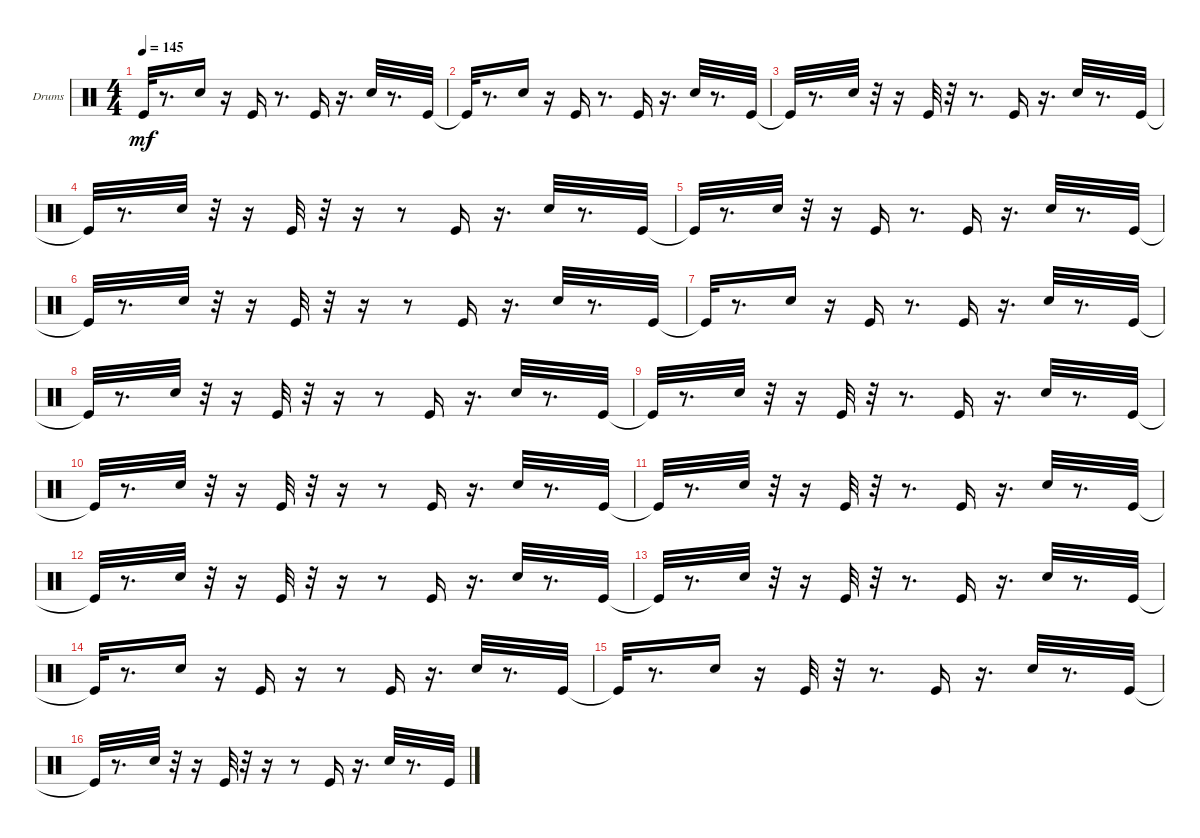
\bracketExtendMode groupsimilarinstruments
\firstSystemTrackNameOrientation horizontal
\otherSystemsTrackNameOrientation horizontal
\track ("Drums" "Drums") {instrument percussion}
\staff {score}
\articulation defaults
\ts (4 4)
\tempo 145
\clef neutral
\ks c "Kick (hit)"{t}.32{dy mf}
r.8{d} "Snare (hit) 2".16 r.16 "Kick (hit)".16 r.8{d} "Kick (hit)".16 r.16{d} "Snare (hit) 2".32 r.8{d} "Kick (hit)".32 |
"Kick (hit)"{t}.32 r.8{d} "Snare (hit) 2".16 r.16 "Kick (hit)".16 r.8{d} "Kick (hit)".16 r.16{d} "Snare (hit) 2".32 r.8{d} "Kick (hit)".32 |
"Kick (hit)"{t}.32 r.8{d} "Snare (hit) 2".32 r.32 r.16 "Kick (hit)".32 r.32 r.8{d} "Kick (hit)".16 r.16{d} "Snare (hit) 2".32 r.8{d} "Kick (hit)".32 |
"Kick (hit)"{t}.32 r.8{d} "Snare (hit) 2".32 r.32 r.16 "Kick (hit)".32 r.32 r.16 r.8 "Kick (hit)".16 r.16{d} "Snare (hit) 2".32 r.8{d} "Kick (hit)".32 |
"Kick (hit)"{t}.32 r.8{d} "Snare (hit) 2".32 r.32 r.16 "Kick (hit)".16 r.8{d} "Kick (hit)".16 r.16{d} "Snare (hit) 2".32 r.8{d} "Kick (hit)".32 |
"Kick (hit)"{t}.32 r.8{d} "Snare (hit) 2".32 r.32 r.16 "Kick (hit)".32 r.32 r.16 r.8 "Kick (hit)".16 r.16{d} "Snare (hit) 2".32 r.8{d} "Kick (hit)".32 |
"Kick (hit)"{t}.32 r.8{d} "Snare (hit) 2".16 r.16 "Kick (hit)".16 r.8{d} "Kick (hit)".16 r.16{d} "Snare (hit) 2".32 r.8{d} "Kick (hit)".32 |
"Kick (hit)"{t}.32 r.8{d} "Snare (hit) 2".32 r.32 r.16 "Kick (hit)".32 r.32 r.16 r.8 "Kick (hit)".16 r.16{d} "Snare (hit) 2".32 r.8{d} "Kick (hit)".32 |
"Kick (hit)"{t}.32 r.8{d} "Snare (hit) 2".32 r.32 r.16 "Kick (hit)".32 r.32 r.8{d} "Kick (hit)".16 r.16{d} "Snare (hit) 2".32 r.8{d} "Kick (hit)".32 |
"Kick (hit)"{t}.32 r.8{d} "Snare (hit) 2".32 r.32 r.16 "Kick (hit)".32 r.32 r.16 r.8 "Kick (hit)".16 r.16{d} "Snare (hit) 2".32 r.8{d} "Kick (hit)".32 |
"Kick (hit)"{t}.32 r.8{d} "Snare (hit) 2".32 r.32 r.16 "Kick (hit)".32 r.32 r.8{d} "Kick (hit)".16 r.16{d} "Snare (hit) 2".32 r.8{d} "Kick (hit)".32 |
"Kick (hit)"{t}.32 r.8{d} "Snare (hit) 2".32 r.32 r.16 "Kick (hit)".32 r.32 r.16 r.8 "Kick (hit)".16 r.16{d} "Snare (hit) 2".32 r.8{d} "Kick (hit)".32 |
"Kick (hit)"{t}.32 r.8{d} "Snare (hit) 2".32 r.32 r.16 "Kick (hit)".32 r.32 r.8{d} "Kick (hit)".16 r.16{d} "Snare (hit) 2".32 r.8{d} "Kick (hit)".32 |
"Kick (hit)"{t}.32 r.8{d} "Snare (hit) 2".16 r.16 "Kick (hit)".16 r.16 r.8 "Kick (hit)".16 r.16{d} "Snare (hit) 2".32 r.8{d} "Kick (hit)".32 |
"Kick (hit)"{t}.32 r.8{d} "Snare (hit) 2".16 r.16 "Kick (hit)".32 r.32 r.8{d} "Kick (hit)".16 r.16{d} "Snare (hit) 2".32 r.8{d} "Kick (hit)".32 |
"Kick (hit)"{t}.32 r.8{d} "Snare (hit) 2".32 r.32 r.16 "Kick (hit)".32 r.32 r.16 r.8 "Kick (hit)".16 r.16{d} "Snare (hit) 2".32 r.8{d} "Kick (hit)".32
